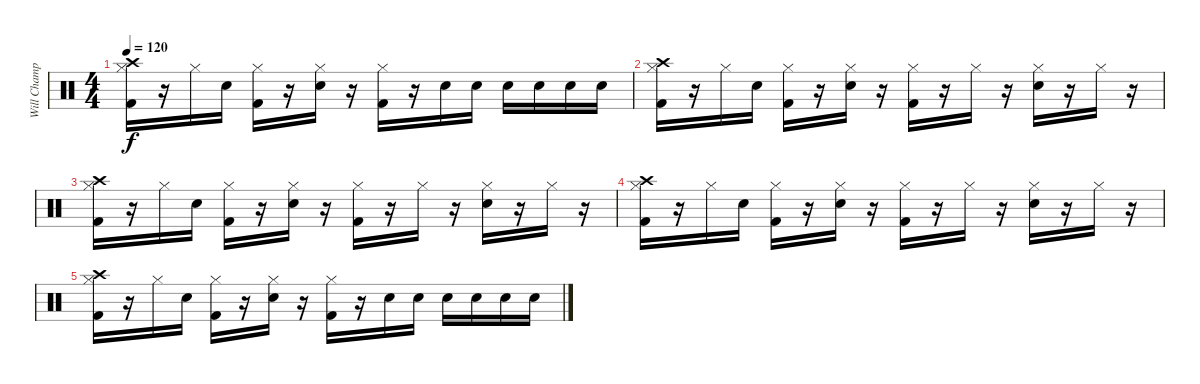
\track ("Will Champion" "Will Champ") {instrument percussion}
\staff {score}
\articulation defaults
\ts (4 4)
\tempo 120
\clef neutral
\ks c
("Crash high (hit)" "Hi-Hat (closed)" "Kick (hit) 2").16{dy f} r.16 "Hi-Hat (closed)".16 "Snare (hit) 2".16 ("Hi-Hat (closed)" "Kick (hit) 2").16 r.16 ("Hi-Hat (closed)" "Snare (hit) 2").16 r.16 ("Hi-Hat (closed)" "Kick (hit) 2").16 r.16 "Snare (hit) 2".16 "Snare (hit) 2".16 "Snare (hit) 2".16 "Snare (hit) 2".16 "Snare (hit) 2".16 "Snare (hit) 2".16 |
("Crash high (hit)" "Hi-Hat (closed)" "Kick (hit) 2").16 r.16 "Hi-Hat (closed)".16 "Snare (hit) 2".16 ("Hi-Hat (closed)" "Kick (hit) 2").16 r.16 ("Hi-Hat (closed)" "Snare (hit) 2").16 r.16 ("Hi-Hat (closed)" "Kick (hit) 2").16 r.16 "Hi-Hat (closed)".16 r.16 ("Hi-Hat (closed)" "Snare (hit) 2").16 r.16 "Hi-Hat (closed)".16 r.16 |
("Crash high (hit)" "Hi-Hat (closed)" "Kick (hit) 2").16 r.16 "Hi-Hat (closed)".16 "Snare (hit) 2".16 ("Hi-Hat (closed)" "Kick (hit) 2").16 r.16 ("Hi-Hat (closed)" "Snare (hit) 2").16 r.16 ("Hi-Hat (closed)" "Kick (hit) 2").16 r.16 "Hi-Hat (closed)".16 r.16 ("Hi-Hat (closed)" "Snare (hit) 2").16 r.16 "Hi-Hat (closed)".16 r.16 |
("Crash high (hit)" "Hi-Hat (closed)" "Kick (hit) 2").16 r.16 "Hi-Hat (closed)".16 "Snare (hit) 2".16 ("Hi-Hat (closed)" "Kick (hit) 2").16 r.16 ("Hi-Hat (closed)" "Snare (hit) 2").16 r.16 ("Hi-Hat (closed)" "Kick (hit) 2").16 r.16 "Hi-Hat (closed)".16 r.16 ("Hi-Hat (closed)" "Snare (hit) 2").16 r.16 "Hi-Hat (closed)".16 r.16 |
("Crash high (hit)" "Hi-Hat (closed)" "Kick (hit) 2").16 r.16 "Hi-Hat (closed)".16 "Snare (hit) 2".16 ("Hi-Hat (closed)" "Kick (hit) 2").16 r.16 ("Hi-Hat (closed)" "Snare (hit) 2").16 r.16 ("Hi-Hat (closed)" "Kick (hit) 2").16 r.16 "Snare (hit) 2".16 "Snare (hit) 2".16 "Snare (hit) 2".16 "Snare (hit) 2".16 "Snare (hit) 2".16 "Snare (hit) 2".16
